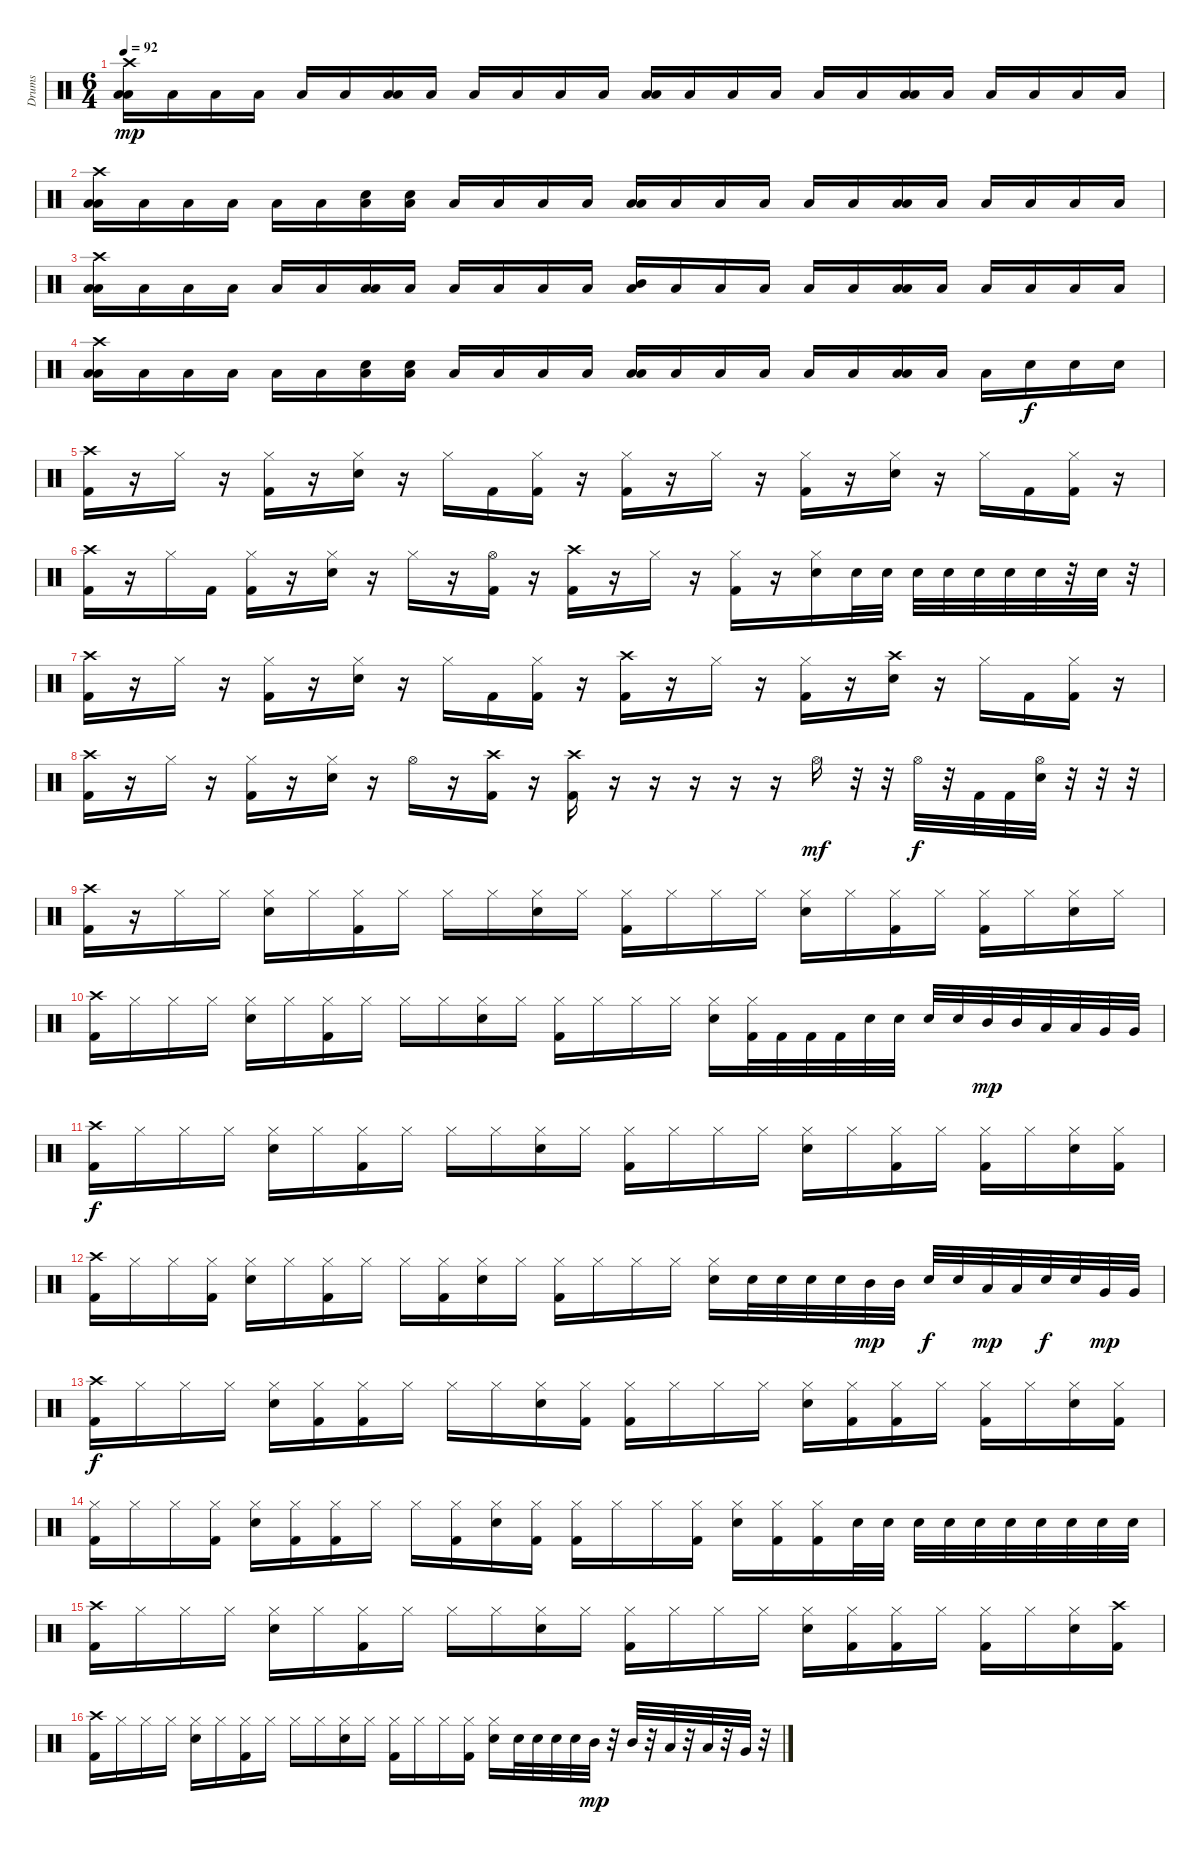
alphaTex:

\track ("Drums" "Drums") {instrument percussion}
\staff {score}
\articulation defaults
\ts (6 4)
\tempo 92
\clef neutral
\ks c
("Crash high (hit)" "Low Tom (hit)" "Low Floor Tom (hit)").16{dy mp} "Low Floor Tom (hit)".16 "Low Floor Tom (hit)".16 "Low Floor Tom (hit)".16 "Low Floor Tom (hit)".16 "Low Floor Tom (hit)".16 ("Low Tom (hit)" "Low Floor Tom (hit)").16 "Low Floor Tom (hit)".16 "Low Floor Tom (hit)".16 "Low Floor Tom (hit)".16 "Low Floor Tom (hit)".16 "Low Floor Tom (hit)".16 ("Low Tom (hit)" "Low Floor Tom (hit)").16 "Low Floor Tom (hit)".16 "Low Floor Tom (hit)".16 "Low Floor Tom (hit)".16 "Low Floor Tom (hit)".16 "Low Floor Tom (hit)".16 ("Low Tom (hit)" "Low Floor Tom (hit)").16 "Low Floor Tom (hit)".16 "Low Floor Tom (hit)".16 "Low Floor Tom (hit)".16 "Low Floor Tom (hit)".16 "Low Floor Tom (hit)".16 |
("Crash high (hit)" "Low Tom (hit)" "Low Floor Tom (hit)").16 "Low Floor Tom (hit)".16 "Low Floor Tom (hit)".16 "Low Floor Tom (hit)".16 "Low Floor Tom (hit)".16 "Low Floor Tom (hit)".16 ("Electric Snare (hit)" "Low Floor Tom (hit)").16 ("Electric Snare (hit)" "Low Floor Tom (hit)").16 "Low Floor Tom (hit)".16 "Low Floor Tom (hit)".16 "Low Floor Tom (hit)".16 "Low Floor Tom (hit)".16 ("Low Tom (hit)" "Low Floor Tom (hit)").16 "Low Floor Tom (hit)".16 "Low Floor Tom (hit)".16 "Low Floor Tom (hit)".16 "Low Floor Tom (hit)".16 "Low Floor Tom (hit)".16 ("Low Tom (hit)" "Low Floor Tom (hit)").16 "Low Floor Tom (hit)".16 "Low Floor Tom (hit)".16 "Low Floor Tom (hit)".16 "Low Floor Tom (hit)".16 "Low Floor Tom (hit)".16 |
("Crash high (hit)" "Low Tom (hit)" "Low Floor Tom (hit)").16 "Low Floor Tom (hit)".16 "Low Floor Tom (hit)".16 "Low Floor Tom (hit)".16 "Low Floor Tom (hit)".16 "Low Floor Tom (hit)".16 ("Low Tom (hit)" "Low Floor Tom (hit)").16 "Low Floor Tom (hit)".16 "Low Floor Tom (hit)".16 "Low Floor Tom (hit)".16 "Low Floor Tom (hit)".16 "Low Floor Tom (hit)".16 ("Mid Tom (hit)" "Low Floor Tom (hit)").16 "Low Floor Tom (hit)".16 "Low Floor Tom (hit)".16 "Low Floor Tom (hit)".16 "Low Floor Tom (hit)".16 "Low Floor Tom (hit)".16 ("Low Tom (hit)" "Low Floor Tom (hit)").16 "Low Floor Tom (hit)".16 "Low Floor Tom (hit)".16 "Low Floor Tom (hit)".16 "Low Floor Tom (hit)".16 "Low Floor Tom (hit)".16 |
("Crash high (hit)" "Low Tom (hit)" "Low Floor Tom (hit)").16 "Low Floor Tom (hit)".16 "Low Floor Tom (hit)".16 "Low Floor Tom (hit)".16 "Low Floor Tom (hit)".16 "Low Floor Tom (hit)".16 ("Electric Snare (hit)" "Low Floor Tom (hit)").16 ("Electric Snare (hit)" "Low Floor Tom (hit)").16 "Low Floor Tom (hit)".16 "Low Floor Tom (hit)".16 "Low Floor Tom (hit)".16 "Low Floor Tom (hit)".16 ("Low Tom (hit)" "Low Floor Tom (hit)").16 "Low Floor Tom (hit)".16 "Low Floor Tom (hit)".16 "Low Floor Tom (hit)".16 "Low Floor Tom (hit)".16 "Low Floor Tom (hit)".16 ("Low Tom (hit)" "Low Floor Tom (hit)").16 "Low Floor Tom (hit)".16 "Low Floor Tom (hit)".16 "Electric Snare (hit)".16{dy f} "Electric Snare (hit)".16 "Electric Snare (hit)".16 |
("Crash high (hit)" "Kick (hit) 2").16 r.16 "Hi-Hat (closed)".16 r.16 ("Hi-Hat (closed)" "Kick (hit) 2").16 r.16 ("Hi-Hat (closed)" "Electric Snare (hit)").16 r.16 "Hi-Hat (closed)".16 "Kick (hit) 2".16 ("Hi-Hat (closed)" "Kick (hit) 2").16 r.16 ("Hi-Hat (closed)" "Kick (hit) 2").16 r.16 "Hi-Hat (closed)".16 r.16 ("Hi-Hat (closed)" "Kick (hit) 2").16 r.16 ("Hi-Hat (closed)" "Electric Snare (hit)").16 r.16 "Hi-Hat (closed)".16 "Kick (hit) 2".16 ("Hi-Hat (closed)" "Kick (hit) 2").16 r.16 |
("Crash high (hit)" "Kick (hit) 2").16 r.16 "Hi-Hat (closed)".16 "Kick (hit) 2".16 ("Hi-Hat (closed)" "Kick (hit) 2").16 r.16 ("Hi-Hat (closed)" "Electric Snare (hit)").16 r.16 "Hi-Hat (closed)".16 r.16 ("Hi-Hat (open)" "Kick (hit) 2").16 r.16 ("Crash high (hit)" "Kick (hit) 2").16 r.16 "Hi-Hat (closed)".16 r.16 ("Hi-Hat (closed)" "Kick (hit) 2").16 r.16 ("Hi-Hat (closed)" "Electric Snare (hit)").16 "Electric Snare (hit)".32 "Electric Snare (hit)".32 "Electric Snare (hit)".32 "Electric Snare (hit)".32 "Electric Snare (hit)".32 "Electric Snare (hit)".32 "Electric Snare (hit)".32 r.32 "Electric Snare (hit)".32 r.32 |
("Crash high (hit)" "Kick (hit) 2").16 r.16 "Hi-Hat (closed)".16 r.16 ("Hi-Hat (closed)" "Kick (hit) 2").16 r.16 ("Hi-Hat (closed)" "Electric Snare (hit)").16 r.16 "Hi-Hat (closed)".16 "Kick (hit) 2".16 ("Hi-Hat (closed)" "Kick (hit) 2").16 r.16 ("Crash high (hit)" "Kick (hit) 2").16 r.16 "Hi-Hat (closed)".16 r.16 ("Hi-Hat (closed)" "Kick (hit) 2").16 r.16 ("Crash high (hit)" "Electric Snare (hit)").16 r.16 "Hi-Hat (closed)".16 "Kick (hit) 2".16 ("Hi-Hat (closed)" "Kick (hit) 2").16 r.16 |
("Crash high (hit)" "Kick (hit) 2").16 r.16 "Hi-Hat (closed)".16 r.16 ("Hi-Hat (closed)" "Kick (hit) 2").16 r.16 ("Hi-Hat (closed)" "Electric Snare (hit)").16 r.16 "Hi-Hat (open)".16 r.16 ("Crash high (hit)" "Kick (hit) 2").16 r.16 ("Crash high (hit)" "Kick (hit) 2").16 r.16 r.16 r.16 r.16 r.16 "Hi-Hat (open)".16{dy mf} r.32 r.32 "Hi-Hat (open)".32{dy f} r.32 "Kick (hit) 2".32 "Kick (hit) 2".32 ("Hi-Hat (open)" "Electric Snare (hit)").32 r.32 r.32 r.32 |
("Crash high (hit)" "Kick (hit) 2").16 r.16 "Hi-Hat (closed)".16 "Hi-Hat (closed)".16 ("Hi-Hat (closed)" "Electric Snare (hit)").16 "Hi-Hat (closed)".16 ("Hi-Hat (closed)" "Kick (hit) 2").16 "Hi-Hat (closed)".16 "Hi-Hat (closed)".16 "Hi-Hat (closed)".16 ("Hi-Hat (closed)" "Electric Snare (hit)").16 "Hi-Hat (closed)".16 ("Hi-Hat (closed)" "Kick (hit) 2").16 "Hi-Hat (closed)".16 "Hi-Hat (closed)".16 "Hi-Hat (closed)".16 ("Hi-Hat (closed)" "Electric Snare (hit)").16 "Hi-Hat (closed)".16 ("Hi-Hat (closed)" "Kick (hit) 2").16 "Hi-Hat (closed)".16 ("Hi-Hat (closed)" "Kick (hit) 2").16 "Hi-Hat (closed)".16 ("Hi-Hat (closed)" "Electric Snare (hit)").16 "Hi-Hat (closed)".16 |
("Crash high (hit)" "Kick (hit) 2").16 "Hi-Hat (closed)".16 "Hi-Hat (closed)".16 "Hi-Hat (closed)".16 ("Hi-Hat (closed)" "Electric Snare (hit)").16 "Hi-Hat (closed)".16 ("Hi-Hat (closed)" "Kick (hit) 2").16 "Hi-Hat (closed)".16 "Hi-Hat (closed)".16 "Hi-Hat (closed)".16 ("Hi-Hat (closed)" "Electric Snare (hit)").16 "Hi-Hat (closed)".16 ("Hi-Hat (closed)" "Kick (hit) 2").16 "Hi-Hat (closed)".16 "Hi-Hat (closed)".16 "Hi-Hat (closed)".16 ("Hi-Hat (closed)" "Electric Snare (hit)").16 ("Hi-Hat (closed)" "Kick (hit) 2").32 "Kick (hit) 2".32 "Kick (hit) 2".32 "Kick (hit) 2".32 "Electric Snare (hit)".32 "Electric Snare (hit)".32 "Electric Snare (hit)".32 "Electric Snare (hit)".32 "Mid Tom (hit)".32{dy mp} "Mid Tom (hit)".32 "Low Tom (hit)".32 "Low Tom (hit)".32 "Very Low Tom (hit)".32 "Very Low Tom (hit)".32 |
("Crash high (hit)" "Kick (hit) 2").16{dy f} "Hi-Hat (closed)".16 "Hi-Hat (closed)".16 "Hi-Hat (closed)".16 ("Hi-Hat (closed)" "Electric Snare (hit)").16 "Hi-Hat (closed)".16 ("Hi-Hat (closed)" "Kick (hit) 2").16 "Hi-Hat (closed)".16 "Hi-Hat (closed)".16 "Hi-Hat (closed)".16 ("Hi-Hat (closed)" "Electric Snare (hit)").16 "Hi-Hat (closed)".16 ("Hi-Hat (closed)" "Kick (hit) 2").16 "Hi-Hat (closed)".16 "Hi-Hat (closed)".16 "Hi-Hat (closed)".16 ("Hi-Hat (closed)" "Electric Snare (hit)").16 "Hi-Hat (closed)".16 ("Hi-Hat (closed)" "Kick (hit) 2").16 "Hi-Hat (closed)".16 ("Hi-Hat (closed)" "Kick (hit) 2").16 "Hi-Hat (closed)".16 ("Hi-Hat (closed)" "Electric Snare (hit)").16 ("Hi-Hat (closed)" "Kick (hit) 2").16 |
("Crash high (hit)" "Kick (hit) 2").16 "Hi-Hat (closed)".16 "Hi-Hat (closed)".16 ("Hi-Hat (closed)" "Kick (hit) 2").16 ("Hi-Hat (closed)" "Electric Snare (hit)").16 "Hi-Hat (closed)".16 ("Hi-Hat (closed)" "Kick (hit) 2").16 "Hi-Hat (closed)".16 "Hi-Hat (closed)".16 ("Hi-Hat (closed)" "Kick (hit) 2").16 ("Hi-Hat (closed)" "Electric Snare (hit)").16 "Hi-Hat (closed)".16 ("Hi-Hat (closed)" "Kick (hit) 2").16 "Hi-Hat (closed)".16 "Hi-Hat (closed)".16 "Hi-Hat (closed)".16 ("Hi-Hat (closed)" "Electric Snare (hit)").16 "Electric Snare (hit)".32 "Electric Snare (hit)".32 "Electric Snare (hit)".32 "Electric Snare (hit)".32 "Mid Tom (hit)".32{dy mp} "Mid Tom (hit)".32 "Electric Snare (hit)".32{dy f} "Electric Snare (hit)".32 "Low Tom (hit)".32{dy mp} "Low Tom (hit)".32 "Electric Snare (hit)".32{dy f} "Electric Snare (hit)".32 "Very Low Tom (hit)".32{dy mp} "Very Low Tom (hit)".32 |
("Crash high (hit)" "Kick (hit) 2").16{dy f} "Hi-Hat (closed)".16 "Hi-Hat (closed)".16 "Hi-Hat (closed)".16 ("Hi-Hat (closed)" "Electric Snare (hit)").16 ("Hi-Hat (closed)" "Kick (hit) 2").16 ("Hi-Hat (closed)" "Kick (hit) 2").16 "Hi-Hat (closed)".16 "Hi-Hat (closed)".16 "Hi-Hat (closed)".16 ("Hi-Hat (closed)" "Electric Snare (hit)").16 ("Hi-Hat (closed)" "Kick (hit) 2").16 ("Hi-Hat (closed)" "Kick (hit) 2").16 "Hi-Hat (closed)".16 "Hi-Hat (closed)".16 "Hi-Hat (closed)".16 ("Hi-Hat (closed)" "Electric Snare (hit)").16 ("Hi-Hat (closed)" "Kick (hit) 2").16 ("Hi-Hat (closed)" "Kick (hit) 2").16 "Hi-Hat (closed)".16 ("Hi-Hat (closed)" "Kick (hit) 2").16 "Hi-Hat (closed)".16 ("Hi-Hat (closed)" "Electric Snare (hit)").16 ("Hi-Hat (closed)" "Kick (hit) 2").16 |
("Hi-Hat (closed)" "Kick (hit) 2").16 "Hi-Hat (closed)".16 "Hi-Hat (closed)".16 ("Hi-Hat (closed)" "Kick (hit) 2").16 ("Hi-Hat (closed)" "Electric Snare (hit)").16 ("Hi-Hat (closed)" "Kick (hit) 2").16 ("Hi-Hat (closed)" "Kick (hit) 2").16 "Hi-Hat (closed)".16 "Hi-Hat (closed)".16 ("Hi-Hat (closed)" "Kick (hit) 2").16 ("Hi-Hat (closed)" "Electric Snare (hit)").16 ("Hi-Hat (closed)" "Kick (hit) 2").16 ("Hi-Hat (closed)" "Kick (hit) 2").16 "Hi-Hat (closed)".16 "Hi-Hat (closed)".16 ("Hi-Hat (closed)" "Kick (hit) 2").16 ("Hi-Hat (closed)" "Electric Snare (hit)").16 ("Hi-Hat (closed)" "Kick (hit) 2").16 ("Hi-Hat (closed)" "Kick (hit) 2").16 "Electric Snare (hit)".32 "Electric Snare (hit)".32 "Electric Snare (hit)".32 "Electric Snare (hit)".32 "Electric Snare (hit)".32 "Electric Snare (hit)".32 "Electric Snare (hit)".32 "Electric Snare (hit)".32 "Electric Snare (hit)".32 "Electric Snare (hit)".32 |
("Crash high (hit)" "Kick (hit) 2").16 "Hi-Hat (closed)".16 "Hi-Hat (closed)".16 "Hi-Hat (closed)".16 ("Hi-Hat (closed)" "Electric Snare (hit)").16 "Hi-Hat (closed)".16 ("Hi-Hat (closed)" "Kick (hit) 2").16 "Hi-Hat (closed)".16 "Hi-Hat (closed)".16 "Hi-Hat (closed)".16 ("Hi-Hat (closed)" "Electric Snare (hit)").16 "Hi-Hat (closed)".16 ("Hi-Hat (closed)" "Kick (hit) 2").16 "Hi-Hat (closed)".16 "Hi-Hat (closed)".16 "Hi-Hat (closed)".16 ("Hi-Hat (closed)" "Electric Snare (hit)").16 ("Hi-Hat (closed)" "Kick (hit) 2").16 ("Hi-Hat (closed)" "Kick (hit) 2").16 "Hi-Hat (closed)".16 ("Hi-Hat (closed)" "Kick (hit) 2").16 "Hi-Hat (closed)".16 ("Hi-Hat (closed)" "Electric Snare (hit)").16 ("Crash high (hit)" "Kick (hit) 2").16 |
("Crash high (hit)" "Kick (hit) 2").16 "Hi-Hat (closed)".16 "Hi-Hat (closed)".16 "Hi-Hat (closed)".16 ("Hi-Hat (closed)" "Electric Snare (hit)").16 "Hi-Hat (closed)".16 ("Hi-Hat (closed)" "Kick (hit) 2").16 "Hi-Hat (closed)".16 "Hi-Hat (closed)".16 "Hi-Hat (closed)".16 ("Hi-Hat (closed)" "Electric Snare (hit)").16 "Hi-Hat (closed)".16 ("Hi-Hat (closed)" "Kick (hit) 2").16 "Hi-Hat (closed)".16 "Hi-Hat (closed)".16 ("Hi-Hat (closed)" "Kick (hit) 2").16 ("Hi-Hat (closed)" "Electric Snare (hit)").16 "Electric Snare (hit)".32 "Electric Snare (hit)".32 "Electric Snare (hit)".32 "Electric Snare (hit)".32 "Mid Tom (hit)".32{dy mp} r.32 "Mid Tom (hit)".32 r.32 "Low Tom (hit)".32 r.32 "Low Tom (hit)".32 r.32 "Very Low Tom (hit)".32 r.32
